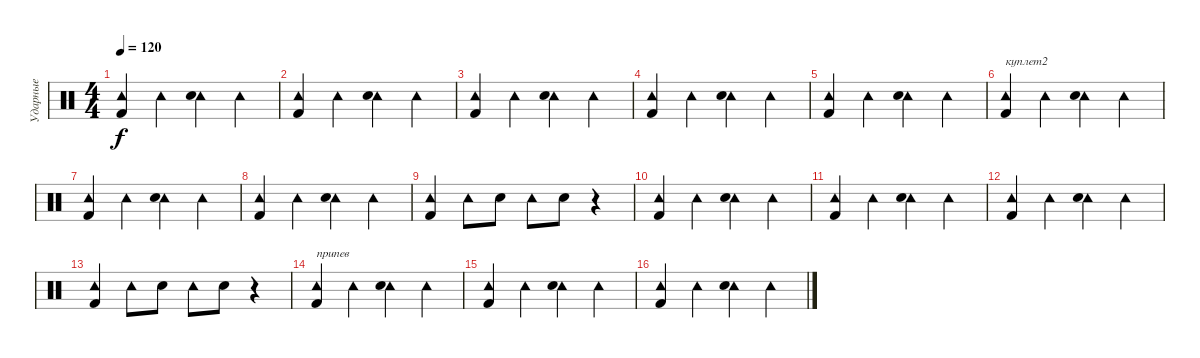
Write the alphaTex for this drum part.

\track ("Ударные" "Ударные") {instrument percussion}
\staff {score}
\articulation defaults
\ts (4 4)
\tempo 120
\clef neutral
\ks c
("Tambourine (hit)" "Kick (hit) 2").4{dy f} "Tambourine (hit)".4 ("Tambourine (hit)" "Electric Snare (hit)").4 "Tambourine (hit)".4 |
("Tambourine (hit)" "Kick (hit) 2").4 "Tambourine (hit)".4 ("Tambourine (hit)" "Electric Snare (hit)").4 "Tambourine (hit)".4 |
("Tambourine (hit)" "Kick (hit) 2").4 "Tambourine (hit)".4 ("Tambourine (hit)" "Electric Snare (hit)").4 "Tambourine (hit)".4 |
("Tambourine (hit)" "Kick (hit) 2").4 "Tambourine (hit)".4 ("Tambourine (hit)" "Electric Snare (hit)").4 "Tambourine (hit)".4 |
("Tambourine (hit)" "Kick (hit) 2").4 "Tambourine (hit)".4 ("Tambourine (hit)" "Electric Snare (hit)").4 "Tambourine (hit)".4 |
("Tambourine (hit)" "Kick (hit) 2").4{txt "куплет2"} "Tambourine (hit)".4 ("Tambourine (hit)" "Electric Snare (hit)").4 "Tambourine (hit)".4 |
("Tambourine (hit)" "Kick (hit) 2").4 "Tambourine (hit)".4 ("Tambourine (hit)" "Electric Snare (hit)").4 "Tambourine (hit)".4 |
("Tambourine (hit)" "Kick (hit) 2").4 "Tambourine (hit)".4 ("Tambourine (hit)" "Electric Snare (hit)").4 "Tambourine (hit)".4 |
("Tambourine (hit)" "Kick (hit) 2").4 "Tambourine (hit)".8 "Electric Snare (hit)".8 "Tambourine (hit)".8 "Electric Snare (hit)".8 r.4 |
("Tambourine (hit)" "Kick (hit) 2").4 "Tambourine (hit)".4 ("Tambourine (hit)" "Electric Snare (hit)").4 "Tambourine (hit)".4 |
("Tambourine (hit)" "Kick (hit) 2").4 "Tambourine (hit)".4 ("Tambourine (hit)" "Electric Snare (hit)").4 "Tambourine (hit)".4 |
("Tambourine (hit)" "Kick (hit) 2").4 "Tambourine (hit)".4 ("Tambourine (hit)" "Electric Snare (hit)").4 "Tambourine (hit)".4 |
("Tambourine (hit)" "Kick (hit) 2").4 "Tambourine (hit)".8 "Electric Snare (hit)".8 "Tambourine (hit)".8 "Electric Snare (hit)".8 r.4 |
("Tambourine (hit)" "Kick (hit) 2").4{txt "припев"} "Tambourine (hit)".4 ("Tambourine (hit)" "Electric Snare (hit)").4 "Tambourine (hit)".4 |
("Tambourine (hit)" "Kick (hit) 2").4 "Tambourine (hit)".4 ("Tambourine (hit)" "Electric Snare (hit)").4 "Tambourine (hit)".4 |
("Tambourine (hit)" "Kick (hit) 2").4 "Tambourine (hit)".4 ("Tambourine (hit)" "Electric Snare (hit)").4 "Tambourine (hit)".4
